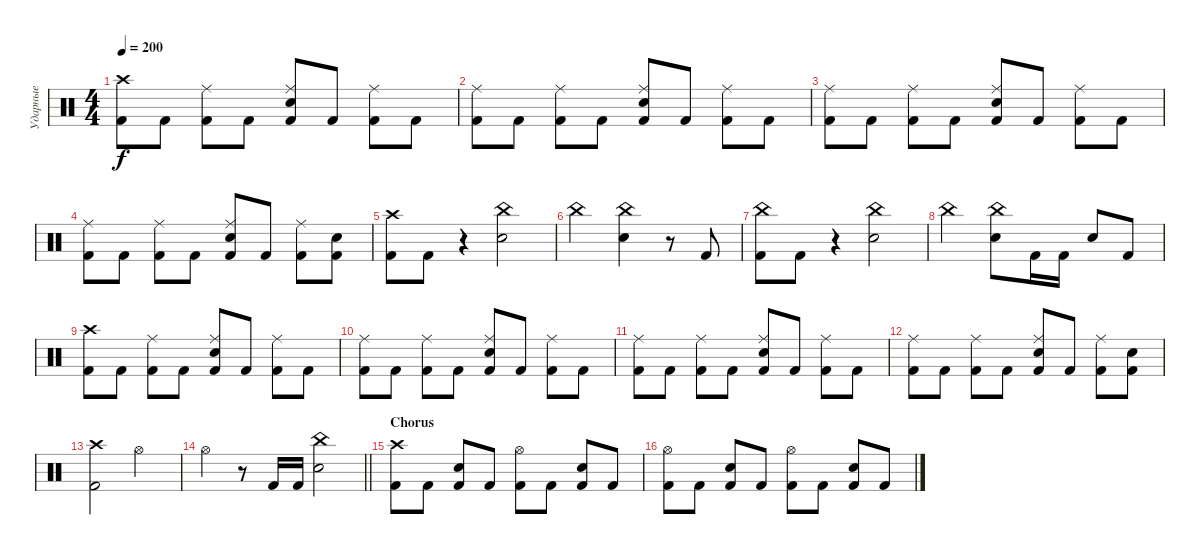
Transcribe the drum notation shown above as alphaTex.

\track ("Ударные" "Ударные") {instrument percussion}
\staff {score}
\articulation defaults
\ts (4 4)
\tempo 200
\clef neutral
\ks c
("Crash high (hit)" "Kick (hit) 2").8{dy f} "Kick (hit) 2".8 ("Ride (middle)" "Kick (hit) 2").8 "Kick (hit) 2".8 ("Ride (middle)" "Snare (hit) 2" "Kick (hit) 2").8 "Kick (hit) 2".8 ("Ride (middle)" "Kick (hit) 2").8 "Kick (hit) 2".8 |
("Ride (middle)" "Kick (hit) 2").8 "Kick (hit) 2".8 ("Ride (middle)" "Kick (hit) 2").8 "Kick (hit) 2".8 ("Ride (middle)" "Snare (hit) 2" "Kick (hit) 2").8 "Kick (hit) 2".8 ("Ride (middle)" "Kick (hit) 2").8 "Kick (hit) 2".8 |
("Ride (middle)" "Kick (hit) 2").8 "Kick (hit) 2".8 ("Ride (middle)" "Kick (hit) 2").8 "Kick (hit) 2".8 ("Ride (middle)" "Snare (hit) 2" "Kick (hit) 2").8 "Kick (hit) 2".8 ("Ride (middle)" "Kick (hit) 2").8 "Kick (hit) 2".8 |
("Ride (middle)" "Kick (hit) 2").8 "Kick (hit) 2".8 ("Ride (middle)" "Kick (hit) 2").8 "Kick (hit) 2".8 ("Ride (middle)" "Snare (hit) 2" "Kick (hit) 2").8 "Kick (hit) 2".8 ("Ride (middle)" "Kick (hit) 2").8 ("Snare (hit) 2" "Kick (hit) 2").8 |
("Crash high (hit)" "Kick (hit) 2").8 "Kick (hit) 2".8 r.4 ("China (hit)" "Snare (hit) 2").2 |
"China (hit)".2 ("China (hit)" "Snare (hit) 2").4 r.8 "Kick (hit) 2".8 |
("China (hit)" "Kick (hit) 2").8 "Kick (hit) 2".8 r.4 ("China (hit)" "Snare (hit) 2").2 |
"China (hit)".2 ("China (hit)" "Snare (hit) 2").8 "Kick (hit) 2".16 "Kick (hit) 2".16 "Snare (hit) 2".8 "Kick (hit) 2".8 |
("Crash high (hit)" "Kick (hit) 2").8 "Kick (hit) 2".8 ("Ride (middle)" "Kick (hit) 2").8 "Kick (hit) 2".8 ("Ride (middle)" "Snare (hit) 2" "Kick (hit) 2").8 "Kick (hit) 2".8 ("Ride (middle)" "Kick (hit) 2").8 "Kick (hit) 2".8 |
("Ride (middle)" "Kick (hit) 2").8 "Kick (hit) 2".8 ("Ride (middle)" "Kick (hit) 2").8 "Kick (hit) 2".8 ("Ride (middle)" "Snare (hit) 2" "Kick (hit) 2").8 "Kick (hit) 2".8 ("Ride (middle)" "Kick (hit) 2").8 "Kick (hit) 2".8 |
("Ride (middle)" "Kick (hit) 2").8 "Kick (hit) 2".8 ("Ride (middle)" "Kick (hit) 2").8 "Kick (hit) 2".8 ("Ride (middle)" "Snare (hit) 2" "Kick (hit) 2").8 "Kick (hit) 2".8 ("Ride (middle)" "Kick (hit) 2").8 "Kick (hit) 2".8 |
("Ride (middle)" "Kick (hit) 2").8 "Kick (hit) 2".8 ("Ride (middle)" "Kick (hit) 2").8 "Kick (hit) 2".8 ("Ride (middle)" "Snare (hit) 2" "Kick (hit) 2").8 "Kick (hit) 2".8 ("Ride (middle)" "Kick (hit) 2").8 ("Snare (hit) 2" "Kick (hit) 2").8 |
("Crash high (hit)" "Kick (hit) 2").2 "Hi-Hat (open)".2 |
\barLineRight lightlight "Hi-Hat (open)".4
r.8 "Kick (hit) 2".16 "Kick (hit) 2".16 ("China (hit)" "Snare (hit) 2").2 |
\section ("" "Chorus")
("Crash high (hit)" "Kick (hit) 2").8 "Kick (hit) 2".8 ("Snare (hit) 2" "Kick (hit) 2").8 "Kick (hit) 2".8 ("Hi-Hat (open)" "Kick (hit) 2").8 "Kick (hit) 2".8 ("Snare (hit) 2" "Kick (hit) 2").8 "Kick (hit) 2".8 |
("Hi-Hat (open)" "Kick (hit) 2").8 "Kick (hit) 2".8 ("Snare (hit) 2" "Kick (hit) 2").8 "Kick (hit) 2".8 ("Hi-Hat (open)" "Kick (hit) 2").8 "Kick (hit) 2".8 ("Snare (hit) 2" "Kick (hit) 2").8 "Kick (hit) 2".8
